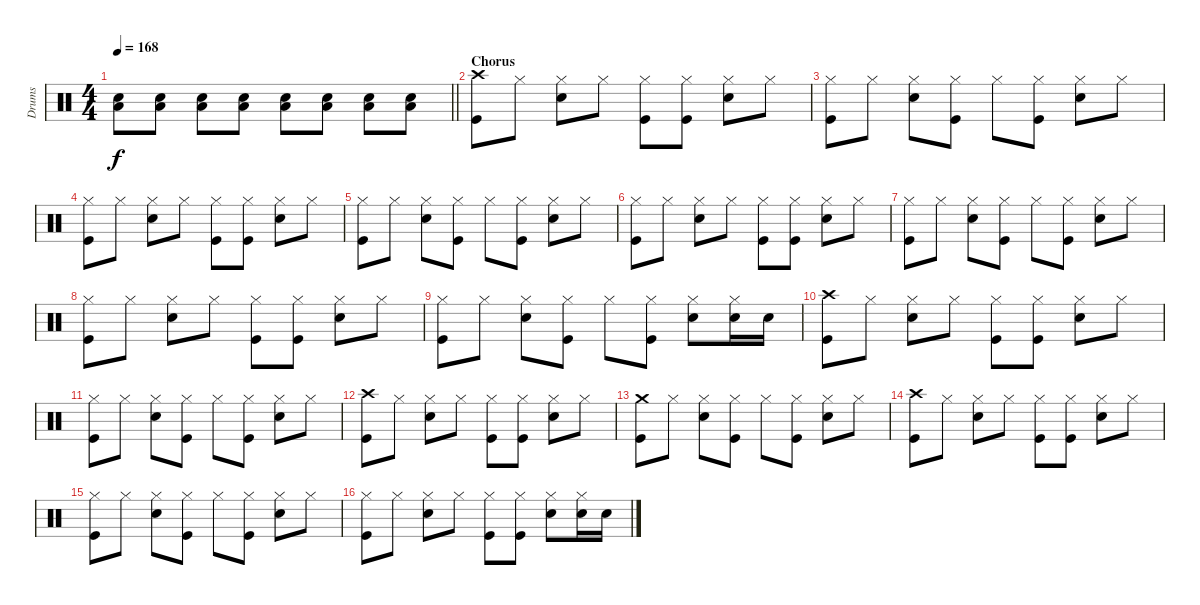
\track ("Drums" "Drums") {instrument percussion}
\staff {score}
\articulation defaults
\ts (4 4)
\tempo 168
\clef neutral
\barLineRight lightlight
\ks c
("Low Floor Tom (hit)" "Snare (hit) 2").8{dy f volume 13} ("Low Floor Tom (hit)" "Snare (hit) 2").8 ("Low Floor Tom (hit)" "Snare (hit) 2").8 ("Low Floor Tom (hit)" "Snare (hit) 2").8 ("Low Floor Tom (hit)" "Snare (hit) 2").8 ("Low Floor Tom (hit)" "Snare (hit) 2").8 ("Low Floor Tom (hit)" "Snare (hit) 2").8 ("Low Floor Tom (hit)" "Snare (hit) 2").8 |
\section ("" "Chorus")
("Crash high (hit)" "Kick (hit)").8 "Hi-Hat (closed)".8 ("Hi-Hat (closed)" "Snare (hit) 2").8 "Hi-Hat (closed)".8 ("Hi-Hat (closed)" "Kick (hit)").8 ("Hi-Hat (closed)" "Kick (hit)").8 ("Hi-Hat (closed)" "Snare (hit) 2").8 "Hi-Hat (closed)".8 |
("Hi-Hat (closed)" "Kick (hit)").8 "Hi-Hat (closed)".8 ("Hi-Hat (closed)" "Snare (hit) 2").8 ("Hi-Hat (closed)" "Kick (hit)").8 "Hi-Hat (closed)".8 ("Hi-Hat (closed)" "Kick (hit)").8 ("Hi-Hat (closed)" "Snare (hit) 2").8 "Hi-Hat (closed)".8 |
("Hi-Hat (closed)" "Kick (hit)").8 "Hi-Hat (closed)".8 ("Hi-Hat (closed)" "Snare (hit) 2").8 "Hi-Hat (closed)".8 ("Hi-Hat (closed)" "Kick (hit)").8 ("Hi-Hat (closed)" "Kick (hit)").8 ("Hi-Hat (closed)" "Snare (hit) 2").8 "Hi-Hat (closed)".8 |
("Hi-Hat (closed)" "Kick (hit)").8 "Hi-Hat (closed)".8 ("Hi-Hat (closed)" "Snare (hit) 2").8 ("Hi-Hat (closed)" "Kick (hit)").8 "Hi-Hat (closed)".8 ("Hi-Hat (closed)" "Kick (hit)").8 ("Hi-Hat (closed)" "Snare (hit) 2").8 "Hi-Hat (closed)".8 |
("Hi-Hat (closed)" "Kick (hit)").8 "Hi-Hat (closed)".8 ("Hi-Hat (closed)" "Snare (hit) 2").8 "Hi-Hat (closed)".8 ("Hi-Hat (closed)" "Kick (hit)").8 ("Hi-Hat (closed)" "Kick (hit)").8 ("Hi-Hat (closed)" "Snare (hit) 2").8 "Hi-Hat (closed)".8 |
("Hi-Hat (closed)" "Kick (hit)").8 "Hi-Hat (closed)".8 ("Hi-Hat (closed)" "Snare (hit) 2").8 ("Hi-Hat (closed)" "Kick (hit)").8 "Hi-Hat (closed)".8 ("Hi-Hat (closed)" "Kick (hit)").8 ("Hi-Hat (closed)" "Snare (hit) 2").8 "Hi-Hat (closed)".8 |
("Hi-Hat (closed)" "Kick (hit)").8 "Hi-Hat (closed)".8 ("Hi-Hat (closed)" "Snare (hit) 2").8 "Hi-Hat (closed)".8 ("Hi-Hat (closed)" "Kick (hit)").8 ("Hi-Hat (closed)" "Kick (hit)").8 ("Hi-Hat (closed)" "Snare (hit) 2").8 "Hi-Hat (closed)".8 |
("Hi-Hat (closed)" "Kick (hit)").8 "Hi-Hat (closed)".8 ("Hi-Hat (closed)" "Snare (hit) 2").8 ("Hi-Hat (closed)" "Kick (hit)").8 "Hi-Hat (closed)".8 ("Hi-Hat (closed)" "Kick (hit)").8 ("Hi-Hat (closed)" "Snare (hit) 2").8 ("Hi-Hat (closed)" "Snare (hit) 2").16 "Snare (hit) 2".16 |
("Crash high (hit)" "Kick (hit)").8 "Hi-Hat (closed)".8 ("Hi-Hat (closed)" "Snare (hit) 2").8 "Hi-Hat (closed)".8 ("Hi-Hat (closed)" "Kick (hit)").8 ("Hi-Hat (closed)" "Kick (hit)").8 ("Hi-Hat (closed)" "Snare (hit) 2").8 "Hi-Hat (closed)".8 |
("Hi-Hat (closed)" "Kick (hit)").8 "Hi-Hat (closed)".8 ("Hi-Hat (closed)" "Snare (hit) 2").8 ("Hi-Hat (closed)" "Kick (hit)").8 "Hi-Hat (closed)".8 ("Hi-Hat (closed)" "Kick (hit)").8 ("Hi-Hat (closed)" "Snare (hit) 2").8 "Hi-Hat (closed)".8 |
("Crash high (hit)" "Kick (hit)").8 "Hi-Hat (closed)".8 ("Hi-Hat (closed)" "Snare (hit) 2").8 "Hi-Hat (closed)".8 ("Hi-Hat (closed)" "Kick (hit)").8 ("Hi-Hat (closed)" "Kick (hit)").8 ("Hi-Hat (closed)" "Snare (hit) 2").8 "Hi-Hat (closed)".8 |
("Crash medium (hit)" "Kick (hit)").8 "Hi-Hat (closed)".8 ("Hi-Hat (closed)" "Snare (hit) 2").8 ("Hi-Hat (closed)" "Kick (hit)").8 "Hi-Hat (closed)".8 ("Hi-Hat (closed)" "Kick (hit)").8 ("Hi-Hat (closed)" "Snare (hit) 2").8 "Hi-Hat (closed)".8 |
("Crash high (hit)" "Kick (hit)").8 "Hi-Hat (closed)".8 ("Hi-Hat (closed)" "Snare (hit) 2").8 "Hi-Hat (closed)".8 ("Hi-Hat (closed)" "Kick (hit)").8 ("Hi-Hat (closed)" "Kick (hit)").8 ("Hi-Hat (closed)" "Snare (hit) 2").8 "Hi-Hat (closed)".8 |
("Hi-Hat (closed)" "Kick (hit)").8 "Hi-Hat (closed)".8 ("Hi-Hat (closed)" "Snare (hit) 2").8 ("Hi-Hat (closed)" "Kick (hit)").8 "Hi-Hat (closed)".8 ("Hi-Hat (closed)" "Kick (hit)").8 ("Hi-Hat (closed)" "Snare (hit) 2").8 "Hi-Hat (closed)".8 |
("Hi-Hat (closed)" "Kick (hit)").8 "Hi-Hat (closed)".8 ("Hi-Hat (closed)" "Snare (hit) 2").8 "Hi-Hat (closed)".8 ("Hi-Hat (closed)" "Kick (hit)").8 ("Hi-Hat (closed)" "Kick (hit)").8 ("Hi-Hat (closed)" "Snare (hit) 2").8 ("Hi-Hat (closed)" "Snare (hit) 2").16 "Snare (hit) 2".16
